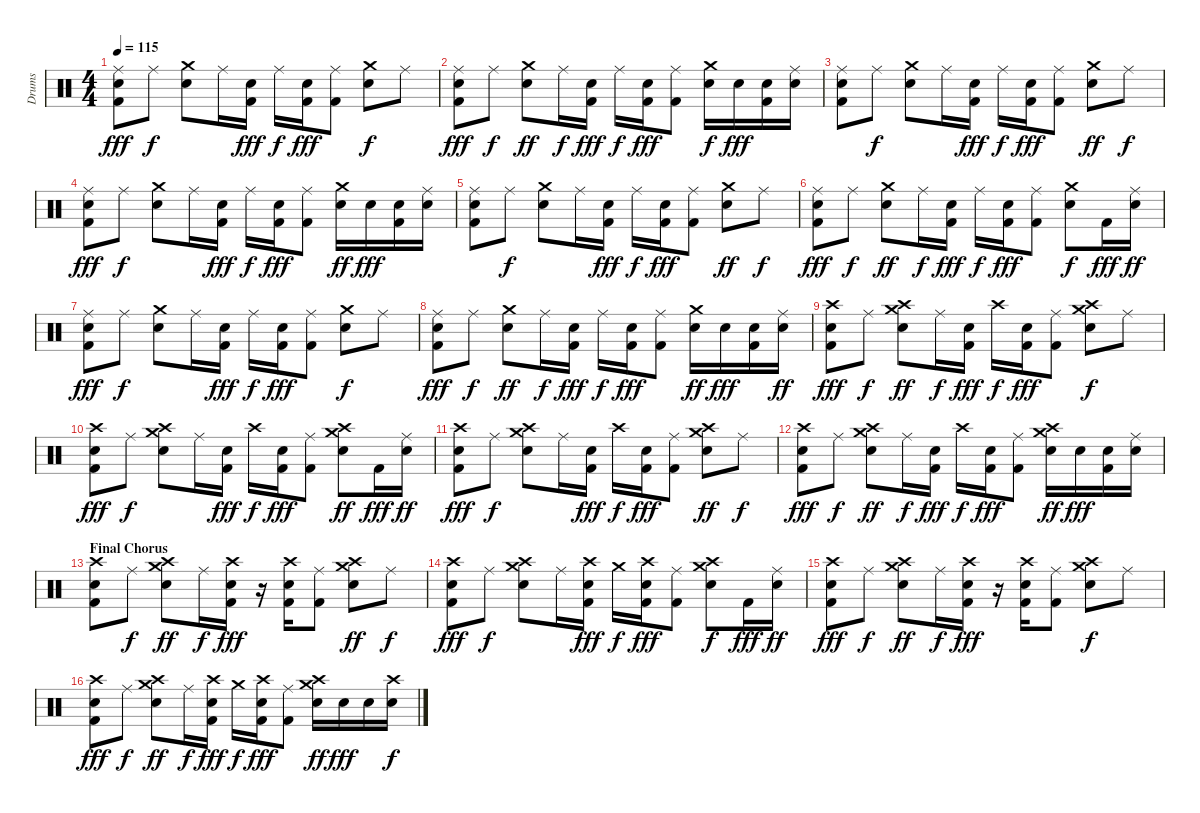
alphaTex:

\track ("Drums" "Drums") {instrument percussion}
\staff {score}
\articulation defaults
\ts (4 4)
\tempo 115
\clef neutral
\ks c
("Ride (middle)" "Electric Snare (hit)" "Kick (hit) 2").8{dy fff} "Ride (middle)".8{dy f} ("Crash medium (hit)" "Snare (hit) 2").8 "Ride (middle)".16 ("Electric Snare (hit)" "Kick (hit) 2").16{dy fff} "Ride (middle)".16{dy f} ("Electric Snare (hit)" "Kick (hit) 2").16{dy fff} ("Ride (middle)" "Kick (hit) 2").8 ("Crash medium (hit)" "Snare (hit) 2").8{dy f} "Ride (middle)".8 |
("Ride (middle)" "Electric Snare (hit)" "Kick (hit) 2").8{dy fff} "Ride (middle)".8{dy f} ("Crash medium (hit)" "Snare (hit) 2").8{dy ff} "Ride (middle)".16{dy f} ("Electric Snare (hit)" "Kick (hit) 2").16{dy fff} "Ride (middle)".16{dy f} ("Electric Snare (hit)" "Kick (hit) 2").16{dy fff} ("Ride (middle)" "Kick (hit) 2").8 ("Crash medium (hit)" "Snare (hit) 2").16{dy f} "Electric Snare (hit)".16{dy fff} ("Electric Snare (hit)" "Kick (hit) 2").16 ("Ride (middle)" "Electric Snare (hit)").16 |
("Ride (middle)" "Electric Snare (hit)" "Kick (hit) 2").8 "Ride (middle)".8{dy f} ("Crash medium (hit)" "Snare (hit) 2").8 "Ride (middle)".16 ("Electric Snare (hit)" "Kick (hit) 2").16{dy fff} "Ride (middle)".16{dy f} ("Electric Snare (hit)" "Kick (hit) 2").16{dy fff} ("Ride (middle)" "Kick (hit) 2").8 ("Crash medium (hit)" "Snare (hit) 2").8{dy ff} "Ride (middle)".8{dy f} |
("Ride (middle)" "Electric Snare (hit)" "Kick (hit) 2").8{dy fff} "Ride (middle)".8{dy f} ("Crash medium (hit)" "Snare (hit) 2").8 "Ride (middle)".16 ("Electric Snare (hit)" "Kick (hit) 2").16{dy fff} "Ride (middle)".16{dy f} ("Electric Snare (hit)" "Kick (hit) 2").16{dy fff} ("Ride (middle)" "Kick (hit) 2").8 ("Crash medium (hit)" "Snare (hit) 2").16{dy ff} "Electric Snare (hit)".16{dy fff} ("Snare (hit) 2" "Kick (hit) 2").16 ("Ride (middle)" "Electric Snare (hit)").16 |
("Ride (middle)" "Electric Snare (hit)" "Kick (hit) 2").8 "Ride (middle)".8{dy f} ("Crash medium (hit)" "Snare (hit) 2").8 "Ride (middle)".16 ("Electric Snare (hit)" "Kick (hit) 2").16{dy fff} "Ride (middle)".16{dy f} ("Electric Snare (hit)" "Kick (hit) 2").16{dy fff} ("Ride (middle)" "Kick (hit) 2").8 ("Crash medium (hit)" "Snare (hit) 2").8{dy ff} "Ride (middle)".8{dy f} |
("Ride (middle)" "Electric Snare (hit)" "Kick (hit) 2").8{dy fff} "Ride (middle)".8{dy f} ("Crash medium (hit)" "Snare (hit) 2").8{dy ff} "Ride (middle)".16{dy f} ("Electric Snare (hit)" "Kick (hit) 2").16{dy fff} "Ride (middle)".16{dy f} ("Electric Snare (hit)" "Kick (hit) 2").16{dy fff} ("Ride (middle)" "Kick (hit) 2").8 ("Crash medium (hit)" "Snare (hit) 2").8{dy f} "Kick (hit) 2".16{dy fff} ("Ride (middle)" "Electric Snare (hit)").16{dy ff} |
("Ride (middle)" "Electric Snare (hit)" "Kick (hit) 2").8{dy fff} "Ride (middle)".8{dy f} ("Crash medium (hit)" "Snare (hit) 2").8 "Ride (middle)".16 ("Electric Snare (hit)" "Kick (hit) 2").16{dy fff} "Ride (middle)".16{dy f} ("Electric Snare (hit)" "Kick (hit) 2").16{dy fff} ("Ride (middle)" "Kick (hit) 2").8 ("Crash medium (hit)" "Snare (hit) 2").8{dy f} "Ride (middle)".8 |
("Ride (middle)" "Electric Snare (hit)" "Kick (hit) 2").8{dy fff} "Ride (middle)".8{dy f} ("Crash medium (hit)" "Snare (hit) 2").8{dy ff} "Ride (middle)".16{dy f} ("Electric Snare (hit)" "Kick (hit) 2").16{dy fff} "Ride (middle)".16{dy f} ("Electric Snare (hit)" "Kick (hit) 2").16{dy fff} ("Ride (middle)" "Kick (hit) 2").8 ("Crash medium (hit)" "Snare (hit) 2").16{dy ff} "Electric Snare (hit)".16{dy fff} ("Electric Snare (hit)" "Kick (hit) 2").16 ("Ride (middle)" "Snare (hit) 2").16{dy ff} |
("Crash high (hit)" "Electric Snare (hit)" "Kick (hit) 2").8{dy fff} "Ride (middle)".8{dy f} ("Crash high (hit)" "Crash medium (hit)" "Snare (hit) 2").8{bu 60 dy ff} "Ride (middle)".16{dy f} ("Electric Snare (hit)" "Kick (hit) 2").16{dy fff} "Crash high (hit)".16{dy f} ("Electric Snare (hit)" "Kick (hit) 2").16{dy fff} ("Ride (middle)" "Kick (hit) 2").8 ("Crash high (hit)" "Crash medium (hit)" "Snare (hit) 2").8{bu 60 dy f} "Ride (middle)".8 |
("Crash high (hit)" "Electric Snare (hit)" "Kick (hit) 2").8{dy fff} "Ride (middle)".8{dy f} ("Crash high (hit)" "Crash medium (hit)" "Snare (hit) 2").8{bu 60} "Ride (middle)".16 ("Electric Snare (hit)" "Kick (hit) 2").16{dy fff} "Crash high (hit)".16{dy f} ("Electric Snare (hit)" "Kick (hit) 2").16{dy fff} ("Ride (middle)" "Kick (hit) 2").8 ("Crash high (hit)" "Crash medium (hit)" "Snare (hit) 2").8{bu 60 dy ff} "Kick (hit) 2".16{dy fff} ("Ride (middle)" "Electric Snare (hit)").16{dy ff} |
("Crash high (hit)" "Electric Snare (hit)" "Kick (hit) 2").8{dy fff} "Ride (middle)".8{dy f} ("Crash high (hit)" "Crash medium (hit)" "Snare (hit) 2").8 "Ride (middle)".16 ("Electric Snare (hit)" "Kick (hit) 2").16{dy fff} "Crash high (hit)".16{dy f} ("Electric Snare (hit)" "Kick (hit) 2").16{dy fff} ("Ride (middle)" "Kick (hit) 2").8 ("Crash high (hit)" "Crash medium (hit)" "Snare (hit) 2").8{dy ff} "Ride (middle)".8{dy f} |
("Crash high (hit)" "Electric Snare (hit)" "Kick (hit) 2").8{dy fff} "Ride (middle)".8{dy f} ("Crash high (hit)" "Crash medium (hit)" "Snare (hit) 2").8{bu 60 dy ff} "Ride (middle)".16{dy f} ("Electric Snare (hit)" "Kick (hit) 2").16{dy fff} "Crash high (hit)".16{dy f} ("Electric Snare (hit)" "Kick (hit) 2").16{dy fff} ("Ride (middle)" "Kick (hit) 2").8 ("Crash high (hit)" "Crash medium (hit)" "Snare (hit) 2").16{bu 60 dy ff} "Electric Snare (hit)".16{dy fff} ("Electric Snare (hit)" "Kick (hit) 2").16 ("Ride (middle)" "Electric Snare (hit)").16 |
\section ("" "Final Chorus")
("Crash high (hit)" "Electric Snare (hit)" "Kick (hit) 2").8 "Ride (middle)".8{dy f} ("Crash high (hit)" "Crash medium (hit)" "Snare (hit) 2").8{bu 60 dy ff} "Ride (middle)".16{dy f} ("Crash high (hit)" "Electric Snare (hit)" "Kick (hit) 2").16{dy fff} r.16 ("Crash high (hit)" "Electric Snare (hit)" "Kick (hit) 2").16 ("Ride (middle)" "Kick (hit) 2").8 ("Crash high (hit)" "Crash medium (hit)" "Snare (hit) 2").8{bu 60 dy ff} "Ride (middle)".8{dy f} |
("Crash high (hit)" "Electric Snare (hit)" "Kick (hit) 2").8{dy fff} "Ride (middle)".8{dy f} ("Crash high (hit)" "Crash medium (hit)" "Snare (hit) 2").8{bu 60} "Ride (middle)".16 ("Crash high (hit)" "Electric Snare (hit)" "Kick (hit) 2").16{dy fff} "Crash medium (hit)".16{dy f} ("Crash high (hit)" "Electric Snare (hit)" "Kick (hit) 2").16{dy fff} ("Ride (middle)" "Kick (hit) 2").8 ("Crash high (hit)" "Crash medium (hit)" "Snare (hit) 2").8{bu 60 dy f} "Kick (hit) 2".16{dy fff} ("Ride (middle)" "Electric Snare (hit)").16{dy ff} |
("Crash high (hit)" "Electric Snare (hit)" "Kick (hit) 2").8{dy fff} "Ride (middle)".8{dy f} ("Crash high (hit)" "Crash medium (hit)" "Snare (hit) 2").8{bu 60 dy ff} "Ride (middle)".16{dy f} ("Crash high (hit)" "Electric Snare (hit)" "Kick (hit) 2").16{dy fff} r.16 ("Crash high (hit)" "Electric Snare (hit)" "Kick (hit) 2").16 ("Ride (middle)" "Kick (hit) 2").8 ("Crash high (hit)" "Crash medium (hit)" "Snare (hit) 2").8{bu 60 dy f} "Ride (middle)".8 |
("Crash high (hit)" "Electric Snare (hit)" "Kick (hit) 2").8{dy fff} "Ride (middle)".8{dy f} ("Crash high (hit)" "Crash medium (hit)" "Snare (hit) 2").8{bu 60 dy ff} "Ride (middle)".16{dy f} ("Crash high (hit)" "Electric Snare (hit)" "Kick (hit) 2").16{dy fff} "Crash medium (hit)".16{dy f} ("Crash high (hit)" "Electric Snare (hit)" "Kick (hit) 2").16{dy fff} ("Ride (middle)" "Kick (hit) 2").8 ("Crash high (hit)" "Crash medium (hit)" "Snare (hit) 2").16{bu 60 dy ff} "Electric Snare (hit)".16{dy fff} "Electric Snare (hit)".16 ("Crash high (hit)" "Snare (hit) 2").16{dy f}
